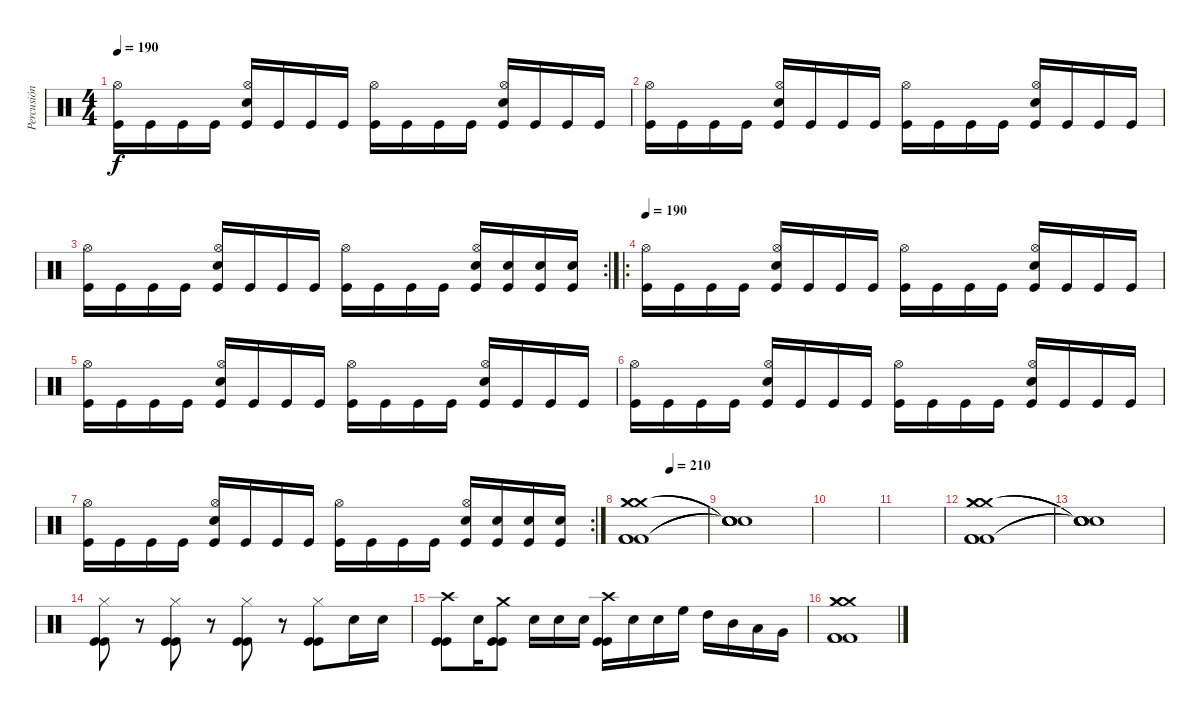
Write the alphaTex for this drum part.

\track ("Percusión" "Percusión") {instrument percussion}
\staff {score}
\articulation defaults
\ts (4 4)
\tempo 190
\clef neutral
\ks c
("Kick (hit)" "Hi-Hat (open)").16{dy f} "Kick (hit)".16 "Kick (hit)".16 "Kick (hit)".16 ("Kick (hit)" "Electric Snare (hit)" "Hi-Hat (open)").16 "Kick (hit)".16 "Kick (hit)".16 "Kick (hit)".16 ("Kick (hit)" "Hi-Hat (open)").16 "Kick (hit)".16 "Kick (hit)".16 "Kick (hit)".16 ("Kick (hit)" "Electric Snare (hit)" "Hi-Hat (open)").16 "Kick (hit)".16 "Kick (hit)".16 "Kick (hit)".16 |
("Kick (hit)" "Hi-Hat (open)").16 "Kick (hit)".16 "Kick (hit)".16 "Kick (hit)".16 ("Kick (hit)" "Electric Snare (hit)" "Hi-Hat (open)").16 "Kick (hit)".16 "Kick (hit)".16 "Kick (hit)".16 ("Kick (hit)" "Hi-Hat (open)").16 "Kick (hit)".16 "Kick (hit)".16 "Kick (hit)".16 ("Kick (hit)" "Electric Snare (hit)" "Hi-Hat (open)").16 "Kick (hit)".16 "Kick (hit)".16 "Kick (hit)".16 |
\rc 2
("Kick (hit)" "Hi-Hat (open)").16 "Kick (hit)".16 "Kick (hit)".16 "Kick (hit)".16 ("Kick (hit)" "Electric Snare (hit)" "Hi-Hat (open)").16 "Kick (hit)".16 "Kick (hit)".16 "Kick (hit)".16 ("Kick (hit)" "Hi-Hat (open)").16 "Kick (hit)".16 "Kick (hit)".16 "Kick (hit)".16 ("Kick (hit)" "Electric Snare (hit)" "Hi-Hat (open)").16 ("Kick (hit)" "Snare (hit) 2").16 ("Kick (hit)" "Snare (hit) 2").16 ("Kick (hit)" "Snare (hit) 2").16 |
\ro
\tempo 170
\tempo 190
("Kick (hit)" "Hi-Hat (open)").16 "Kick (hit)".16 "Kick (hit)".16 "Kick (hit)".16 ("Kick (hit)" "Electric Snare (hit)" "Hi-Hat (open)").16 "Kick (hit)".16 "Kick (hit)".16 "Kick (hit)".16 ("Kick (hit)" "Hi-Hat (open)").16 "Kick (hit)".16 "Kick (hit)".16 "Kick (hit)".16 ("Kick (hit)" "Electric Snare (hit)" "Hi-Hat (open)").16 "Kick (hit)".16 "Kick (hit)".16 "Kick (hit)".16 |
("Kick (hit)" "Hi-Hat (open)").16 "Kick (hit)".16 "Kick (hit)".16 "Kick (hit)".16 ("Kick (hit)" "Electric Snare (hit)" "Hi-Hat (open)").16 "Kick (hit)".16 "Kick (hit)".16 "Kick (hit)".16 ("Kick (hit)" "Hi-Hat (open)").16 "Kick (hit)".16 "Kick (hit)".16 "Kick (hit)".16 ("Kick (hit)" "Electric Snare (hit)" "Hi-Hat (open)").16 "Kick (hit)".16 "Kick (hit)".16 "Kick (hit)".16 |
("Kick (hit)" "Hi-Hat (open)").16 "Kick (hit)".16 "Kick (hit)".16 "Kick (hit)".16 ("Kick (hit)" "Electric Snare (hit)" "Hi-Hat (open)").16 "Kick (hit)".16 "Kick (hit)".16 "Kick (hit)".16 ("Kick (hit)" "Hi-Hat (open)").16 "Kick (hit)".16 "Kick (hit)".16 "Kick (hit)".16 ("Kick (hit)" "Electric Snare (hit)" "Hi-Hat (open)").16 "Kick (hit)".16 "Kick (hit)".16 "Kick (hit)".16 |
\rc 2
("Kick (hit)" "Hi-Hat (open)").16 "Kick (hit)".16 "Kick (hit)".16 "Kick (hit)".16 ("Kick (hit)" "Electric Snare (hit)" "Hi-Hat (open)").16 "Kick (hit)".16 "Kick (hit)".16 "Kick (hit)".16 ("Kick (hit)" "Hi-Hat (open)").16 "Kick (hit)".16 "Kick (hit)".16 "Kick (hit)".16 ("Kick (hit)" "Electric Snare (hit)" "Hi-Hat (open)").16 ("Kick (hit)" "Snare (hit) 2").16 ("Kick (hit)" "Snare (hit) 2").16 ("Kick (hit)" "Snare (hit) 2").16 |
\tempo (210 0.5)
("Crash medium (hit)" "Crash medium (hit)" "Crash medium (hit)" "Kick (hit) 2" "Kick (hit) 2" "Kick (hit) 2").1 |
("Snare (hit)"{t} "Snare (hit)"{t} "Snare (hit)"{t} "Snare (hit)"{t} "Snare (hit)"{t} "Snare (hit)"{t}).1 |
|
|
("Crash medium (hit)" "Crash medium (hit)" "Crash medium (hit)" "Kick (hit) 2" "Kick (hit) 2" "Kick (hit) 2").1 |
("Snare (hit)"{t} "Snare (hit)"{t} "Snare (hit)"{t} "Snare (hit)"{t} "Snare (hit)"{t} "Snare (hit)"{t}).1 |
("Kick (hit)" "Kick (hit)" "Hi-Hat (closed)").8 r.8 ("Kick (hit)" "Kick (hit)" "Hi-Hat (closed)").8 r.8 ("Kick (hit)" "Kick (hit)" "Hi-Hat (closed)").8 r.8 ("Kick (hit)" "Kick (hit)" "Hi-Hat (closed)").8 "Snare (hit) 2".16 "Snare (hit) 2".16 |
("Kick (hit)" "Kick (hit)" "Crash high (hit)").8 "Snare (hit) 2".16 ("Kick (hit)" "Kick (hit)" "Crash medium (hit)").8 "Snare (hit) 2".16 "Snare (hit) 2".16 "Snare (hit) 2".16 ("Kick (hit)" "Kick (hit)" "Crash high (hit)").16 "Snare (hit) 2".16 "Snare (hit) 2".16 "High Floor Tom (hit)".16 "High Tom (hit)".16 "Mid Tom (hit)".16 "Low Tom (hit)".16 "Very Low Tom (hit)".16 |
("Crash medium (hit)" "Crash medium (hit)" "Crash medium (hit)" "Kick (hit) 2" "Kick (hit) 2" "Kick (hit) 2").1
